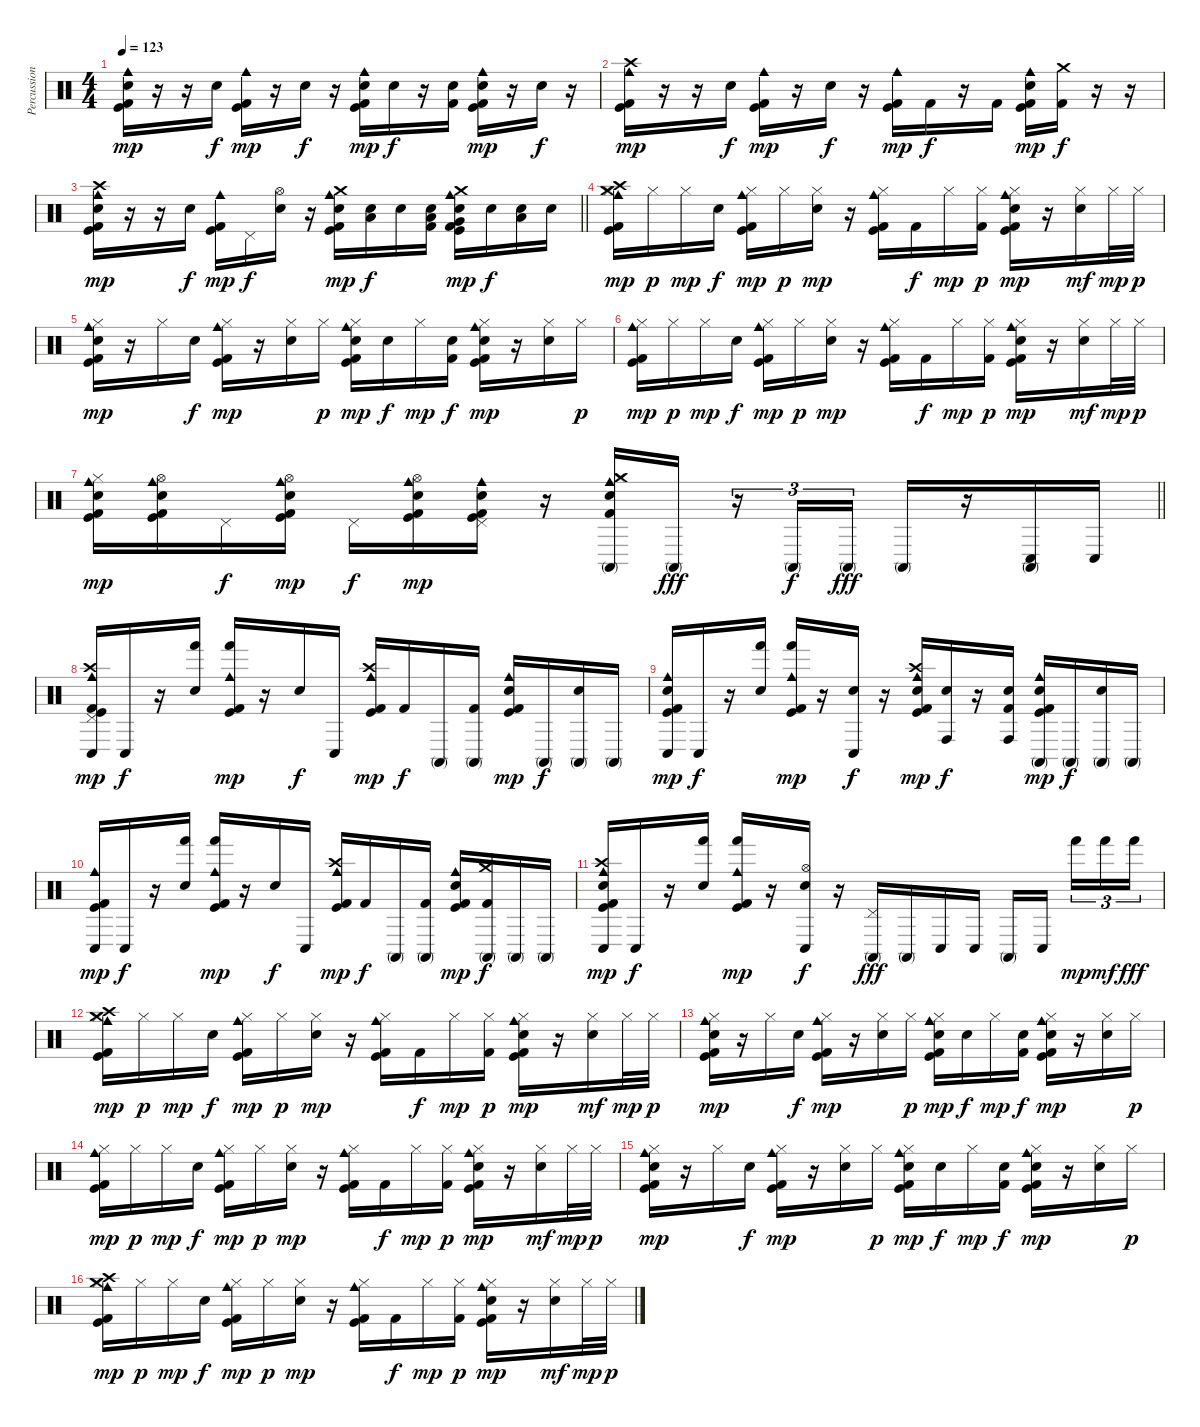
\track ("Percussion" "Percussion") {instrument percussion}
\staff {score}
\articulation defaults
\ts (4 4)
\tempo 123
\clef neutral
\ks c
("Cowbell medium (hit)" "Kick (hit)" "Electric Snare (hit)" "Kick (hit) 2").16{dy mp} r.16 r.16 "Electric Snare (hit)".16{dy f} ("Cowbell medium (hit)" "Kick (hit)" "Kick (hit) 2").16{dy mp} r.16 "Electric Snare (hit)".16{dy f} r.16 ("Cowbell medium (hit)" "Kick (hit)" "Electric Snare (hit)" "Kick (hit) 2").16{dy mp} "Electric Snare (hit)".16{dy f} r.16 ("Electric Snare (hit)" "Kick (hit) 2").16 ("Cowbell medium (hit)" "Kick (hit)" "Electric Snare (hit)" "Kick (hit) 2").16{dy mp} r.16 "Electric Snare (hit)".16{dy f} r.16 |
("Cowbell medium (hit)" "Kick (hit)" "Crash high (hit)" "Kick (hit) 2").16{dy mp} r.16 r.16 "Electric Snare (hit)".16{dy f} ("Cowbell medium (hit)" "Kick (hit)" "Kick (hit) 2").16{dy mp} r.16 "Electric Snare (hit)".16{dy f} r.16 ("Cowbell medium (hit)" "Kick (hit)" "Kick (hit) 2").16{dy mp} "Kick (hit) 2".16{dy f} r.16 "Kick (hit) 2".16 ("Cowbell medium (hit)" "Kick (hit)" "Electric Snare (hit)" "Kick (hit) 2").16{dy mp} ("Crash medium (hit)" "Kick (hit) 2").16{dy f} r.16 r.16 |
\barLineRight lightlight
("Crash high (hit)" "Cowbell medium (hit)" "Kick (hit)" "Electric Snare (hit)" "Kick (hit) 2").16{dy mp} r.16 r.16 "Electric Snare (hit)".16{dy f} ("Cowbell medium (hit)" "Kick (hit)" "Kick (hit) 2").16{dy mp} "Pedal Hi-Hat (hit)".16{dy f} ("Hi-Hat (open)" "Electric Snare (hit)").16 r.16 ("Cowbell medium (hit)" "Kick (hit)" "Crash medium (hit)" "Electric Snare (hit)" "Kick (hit) 2").16{dy mp} ("Low Tom (hit)" "Electric Snare (hit)").16{dy f} "Electric Snare (hit)".16 ("Low Tom (hit)" "Electric Snare (hit)" "Kick (hit) 2").16 ("Very Low Tom (hit)" "Cowbell medium (hit)" "Kick (hit)" "Crash medium (hit)" "Electric Snare (hit)" "Kick (hit) 2").16{dy mp} "Electric Snare (hit)".16{dy f} ("Low Floor Tom (hit)" "Electric Snare (hit)").16 "Electric Snare (hit)".16 |
("Hi-Hat (closed)" "Cowbell medium (hit)" "Kick (hit)" "Crash medium (hit)" "Crash high (hit)" "Kick (hit) 2").16{dy mp} "Hi-Hat (closed)".16{dy p} "Hi-Hat (closed)".16{dy mp} "Electric Snare (hit)".16{dy f} ("Hi-Hat (closed)" "Cowbell medium (hit)" "Kick (hit)" "Kick (hit) 2").16{dy mp} "Hi-Hat (closed)".16{dy p} ("Hi-Hat (closed)" "Electric Snare (hit)").16{dy mp} r.16 ("Hi-Hat (closed)" "Cowbell medium (hit)" "Kick (hit)" "Kick (hit) 2").16 "Kick (hit) 2".16{dy f} "Hi-Hat (closed)".16{dy mp} ("Hi-Hat (closed)" "Kick (hit) 2").16{dy p} ("Hi-Hat (closed)" "Cowbell medium (hit)" "Kick (hit)" "Electric Snare (hit)" "Kick (hit) 2").16{dy mp} r.16 ("Hi-Hat (closed)" "Electric Snare (hit)").16{dy mf} "Hi-Hat (closed)".32{dy mp} "Hi-Hat (closed)".32{dy p} |
("Hi-Hat (closed)" "Cowbell medium (hit)" "Kick (hit)" "Electric Snare (hit)" "Kick (hit) 2").16{dy mp} r.16 "Hi-Hat (closed)".16 "Electric Snare (hit)".16{dy f} ("Hi-Hat (closed)" "Cowbell medium (hit)" "Kick (hit)" "Kick (hit) 2").16{dy mp} r.16 ("Hi-Hat (closed)" "Electric Snare (hit)").16 "Hi-Hat (closed)".16{dy p} ("Hi-Hat (closed)" "Cowbell medium (hit)" "Kick (hit)" "Electric Snare (hit)" "Kick (hit) 2").16{dy mp} "Electric Snare (hit)".16{dy f} "Hi-Hat (closed)".16{dy mp} ("Electric Snare (hit)" "Kick (hit) 2").16{dy f} ("Hi-Hat (closed)" "Cowbell medium (hit)" "Kick (hit)" "Electric Snare (hit)" "Kick (hit) 2").16{dy mp} r.16 ("Hi-Hat (closed)" "Electric Snare (hit)").16 "Hi-Hat (closed)".16{dy p} |
("Hi-Hat (closed)" "Cowbell medium (hit)" "Kick (hit)" "Kick (hit) 2").16{dy mp} "Hi-Hat (closed)".16{dy p} "Hi-Hat (closed)".16{dy mp} "Electric Snare (hit)".16{dy f} ("Hi-Hat (closed)" "Cowbell medium (hit)" "Kick (hit)" "Kick (hit) 2").16{dy mp} "Hi-Hat (closed)".16{dy p} ("Hi-Hat (closed)" "Electric Snare (hit)").16{dy mp} r.16 ("Hi-Hat (closed)" "Cowbell medium (hit)" "Kick (hit)" "Kick (hit) 2").16 "Kick (hit) 2".16{dy f} "Hi-Hat (closed)".16{dy mp} ("Hi-Hat (closed)" "Kick (hit) 2").16{dy p} ("Hi-Hat (closed)" "Cowbell medium (hit)" "Kick (hit)" "Electric Snare (hit)" "Kick (hit) 2").16{dy mp} r.16 ("Hi-Hat (closed)" "Electric Snare (hit)").16{dy mf} "Hi-Hat (closed)".32{dy mp} "Hi-Hat (closed)".32{dy p} |
\barLineRight lightlight
("Hi-Hat (closed)" "Cowbell medium (hit)" "Kick (hit)" "Electric Snare (hit)" "Kick (hit) 2").16{dy mp} ("Hi-Hat (open)" "Cowbell medium (hit)" "Kick (hit)" "Electric Snare (hit)" "Kick (hit) 2").16 "Pedal Hi-Hat (hit)".16{dy f} ("Hi-Hat (open)" "Cowbell medium (hit)" "Kick (hit)" "Electric Snare (hit)" "Kick (hit) 2").16{dy mp} "Pedal Hi-Hat (hit)".16{dy f} ("Hi-Hat (open)" "Cowbell medium (hit)" "Kick (hit)" "Electric Snare (hit)" "Kick (hit) 2").16{dy mp} ("Pedal Hi-Hat (hit)" "Cowbell medium (hit)" "Kick (hit)" "Electric Snare (hit)" "Kick (hit) 2").16 r.16 ("Hi-Hat (closed)" "Cowbell medium (hit)" "Conga high (mute)" "Crash medium (hit)" "Electric Snare (hit)" "Kick (hit) 2").16 "Conga high (mute)".16{dy fff} r.16{tu (3 2)} "Conga high (mute)".16{tu (3 2) dy f} "Conga high (mute)".16{tu (3 2) dy fff} "Conga high (mute)".16 r.16 ("Conga low (hit)" "Conga high (mute)").16 "Conga low (hit)".16 |
("Pedal Hi-Hat (hit)" "Cowbell medium (hit)" "Kick (hit)" "Crash high (hit)" "Conga low (hit)" "Kick (hit) 2").16{dy mp} "Conga low (hit)".16{dy f} r.16 ("Hand (hit)" "Electric Snare (hit)").16 ("Cowbell medium (hit)" "Kick (hit)" "Hand (hit)" "Kick (hit) 2").16{dy mp} r.16 "Electric Snare (hit)".16{dy f} "Conga low (hit)".16 ("Crash high (hit)" "Cowbell medium (hit)" "Kick (hit)" "Kick (hit) 2").16{dy mp} "Kick (hit) 2".16{dy f} "Conga high (mute)".16 ("Conga high (mute)" "Kick (hit) 2").16 ("Cowbell medium (hit)" "Kick (hit)" "Electric Snare (hit)" "Kick (hit) 2").16{dy mp} "Conga high (mute)".16{dy f} ("Conga high (mute)" "Electric Snare (hit)").16 "Conga high (mute)".16 |
("Cowbell medium (hit)" "Kick (hit)" "Conga low (hit)" "Electric Snare (hit)" "Kick (hit) 2").16{dy mp} "Conga low (hit)".16{dy f} r.16 ("Hand (hit)" "Electric Snare (hit)").16 ("Cowbell medium (hit)" "Kick (hit)" "Hand (hit)" "Kick (hit) 2").16{dy mp} r.16 ("Conga low (hit)" "Electric Snare (hit)").16{dy f} r.16 ("Crash high (hit)" "Cowbell medium (hit)" "Kick (hit)" "Electric Snare (hit)" "Kick (hit) 2").16{dy mp} ("Conga high (hit)" "Electric Snare (hit)").16{dy f} r.16 ("Conga high (hit)" "Electric Snare (hit)" "Kick (hit) 2").16 ("Cowbell medium (hit)" "Kick (hit)" "Conga high (mute)" "Electric Snare (hit)" "Kick (hit) 2").16{dy mp} "Conga high (mute)".16{dy f} ("Conga high (mute)" "Electric Snare (hit)").16 "Conga high (mute)".16 |
("Cowbell medium (hit)" "Kick (hit)" "Conga low (hit)" "Kick (hit) 2").16{dy mp} "Conga low (hit)".16{dy f} r.16 ("Hand (hit)" "Electric Snare (hit)").16 ("Cowbell medium (hit)" "Kick (hit)" "Hand (hit)" "Kick (hit) 2").16{dy mp} r.16 "Electric Snare (hit)".16{dy f} "Conga low (hit)".16 ("Crash high (hit)" "Cowbell medium (hit)" "Kick (hit)" "Kick (hit) 2").16{dy mp} "Kick (hit) 2".16{dy f} "Conga high (mute)".16 ("Conga high (mute)" "Kick (hit) 2").16 ("Cowbell medium (hit)" "Kick (hit)" "Electric Snare (hit)" "Kick (hit) 2").16{dy mp} ("Crash medium (hit)" "Conga high (mute)" "Kick (hit) 2").16{dy f} "Conga high (mute)".16 "Conga high (mute)".16 |
("Crash high (hit)" "Cowbell medium (hit)" "Kick (hit)" "Conga low (hit)" "Electric Snare (hit)" "Kick (hit) 2").16{dy mp} "Conga low (hit)".16{dy f} r.16 ("Hand (hit)" "Electric Snare (hit)").16 ("Cowbell medium (hit)" "Kick (hit)" "Hand (hit)" "Kick (hit) 2").16{dy mp} r.16 ("Hi-Hat (open)" "Conga low (hit)" "Electric Snare (hit)").16{dy f} r.16 ("Pedal Hi-Hat (hit)" "Conga high (mute)").16{dy fff} "Conga high (mute)".16 "Conga low (hit)".16 "Conga low (hit)".16 "Conga high (mute)".16 "Conga low (hit)".16 "Hand (hit)".16{tu (3 2) dy mp} "Hand (hit)".16{tu (3 2) dy mf} "Hand (hit)".16{tu (3 2) dy fff} |
("Hi-Hat (closed)" "Cowbell medium (hit)" "Kick (hit)" "Crash medium (hit)" "Crash high (hit)" "Kick (hit) 2").16{dy mp} "Hi-Hat (closed)".16{dy p} "Hi-Hat (closed)".16{dy mp} "Electric Snare (hit)".16{dy f} ("Hi-Hat (closed)" "Cowbell medium (hit)" "Kick (hit)" "Kick (hit) 2").16{dy mp} "Hi-Hat (closed)".16{dy p} ("Hi-Hat (closed)" "Electric Snare (hit)").16{dy mp} r.16 ("Hi-Hat (closed)" "Cowbell medium (hit)" "Kick (hit)" "Kick (hit) 2").16 "Kick (hit) 2".16{dy f} "Hi-Hat (closed)".16{dy mp} ("Hi-Hat (closed)" "Kick (hit) 2").16{dy p} ("Hi-Hat (closed)" "Cowbell medium (hit)" "Kick (hit)" "Electric Snare (hit)" "Kick (hit) 2").16{dy mp} r.16 ("Hi-Hat (closed)" "Electric Snare (hit)").16{dy mf} "Hi-Hat (closed)".32{dy mp} "Hi-Hat (closed)".32{dy p} |
("Hi-Hat (closed)" "Cowbell medium (hit)" "Kick (hit)" "Electric Snare (hit)" "Kick (hit) 2").16{dy mp} r.16 "Hi-Hat (closed)".16 "Electric Snare (hit)".16{dy f} ("Hi-Hat (closed)" "Cowbell medium (hit)" "Kick (hit)" "Kick (hit) 2").16{dy mp} r.16 ("Hi-Hat (closed)" "Electric Snare (hit)").16 "Hi-Hat (closed)".16{dy p} ("Hi-Hat (closed)" "Cowbell medium (hit)" "Kick (hit)" "Electric Snare (hit)" "Kick (hit) 2").16{dy mp} "Electric Snare (hit)".16{dy f} "Hi-Hat (closed)".16{dy mp} ("Electric Snare (hit)" "Kick (hit) 2").16{dy f} ("Hi-Hat (closed)" "Cowbell medium (hit)" "Kick (hit)" "Electric Snare (hit)" "Kick (hit) 2").16{dy mp} r.16 ("Hi-Hat (closed)" "Electric Snare (hit)").16 "Hi-Hat (closed)".16{dy p} |
("Hi-Hat (closed)" "Cowbell medium (hit)" "Kick (hit)" "Kick (hit) 2").16{dy mp} "Hi-Hat (closed)".16{dy p} "Hi-Hat (closed)".16{dy mp} "Electric Snare (hit)".16{dy f} ("Hi-Hat (closed)" "Cowbell medium (hit)" "Kick (hit)" "Kick (hit) 2").16{dy mp} "Hi-Hat (closed)".16{dy p} ("Hi-Hat (closed)" "Electric Snare (hit)").16{dy mp} r.16 ("Hi-Hat (closed)" "Cowbell medium (hit)" "Kick (hit)" "Kick (hit) 2").16 "Kick (hit) 2".16{dy f} "Hi-Hat (closed)".16{dy mp} ("Hi-Hat (closed)" "Kick (hit) 2").16{dy p} ("Hi-Hat (closed)" "Cowbell medium (hit)" "Kick (hit)" "Electric Snare (hit)" "Kick (hit) 2").16{dy mp} r.16 ("Hi-Hat (closed)" "Electric Snare (hit)").16{dy mf} "Hi-Hat (closed)".32{dy mp} "Hi-Hat (closed)".32{dy p} |
("Hi-Hat (closed)" "Cowbell medium (hit)" "Kick (hit)" "Electric Snare (hit)" "Kick (hit) 2").16{dy mp} r.16 "Hi-Hat (closed)".16 "Electric Snare (hit)".16{dy f} ("Hi-Hat (closed)" "Cowbell medium (hit)" "Kick (hit)" "Kick (hit) 2").16{dy mp} r.16 ("Hi-Hat (closed)" "Electric Snare (hit)").16 "Hi-Hat (closed)".16{dy p} ("Hi-Hat (closed)" "Cowbell medium (hit)" "Kick (hit)" "Electric Snare (hit)" "Kick (hit) 2").16{dy mp} "Electric Snare (hit)".16{dy f} "Hi-Hat (closed)".16{dy mp} ("Electric Snare (hit)" "Kick (hit) 2").16{dy f} ("Hi-Hat (closed)" "Cowbell medium (hit)" "Kick (hit)" "Electric Snare (hit)" "Kick (hit) 2").16{dy mp} r.16 ("Hi-Hat (closed)" "Electric Snare (hit)").16 "Hi-Hat (closed)".16{dy p} |
("Hi-Hat (closed)" "Cowbell medium (hit)" "Kick (hit)" "Crash medium (hit)" "Crash high (hit)" "Kick (hit) 2").16{dy mp} "Hi-Hat (closed)".16{dy p} "Hi-Hat (closed)".16{dy mp} "Electric Snare (hit)".16{dy f} ("Hi-Hat (closed)" "Cowbell medium (hit)" "Kick (hit)" "Kick (hit) 2").16{dy mp} "Hi-Hat (closed)".16{dy p} ("Hi-Hat (closed)" "Electric Snare (hit)").16{dy mp} r.16 ("Hi-Hat (closed)" "Cowbell medium (hit)" "Kick (hit)" "Kick (hit) 2").16 "Kick (hit) 2".16{dy f} "Hi-Hat (closed)".16{dy mp} ("Hi-Hat (closed)" "Kick (hit) 2").16{dy p} ("Hi-Hat (closed)" "Cowbell medium (hit)" "Kick (hit)" "Electric Snare (hit)" "Kick (hit) 2").16{dy mp} r.16 ("Hi-Hat (closed)" "Electric Snare (hit)").16{dy mf} "Hi-Hat (closed)".32{dy mp} "Hi-Hat (closed)".32{dy p}
